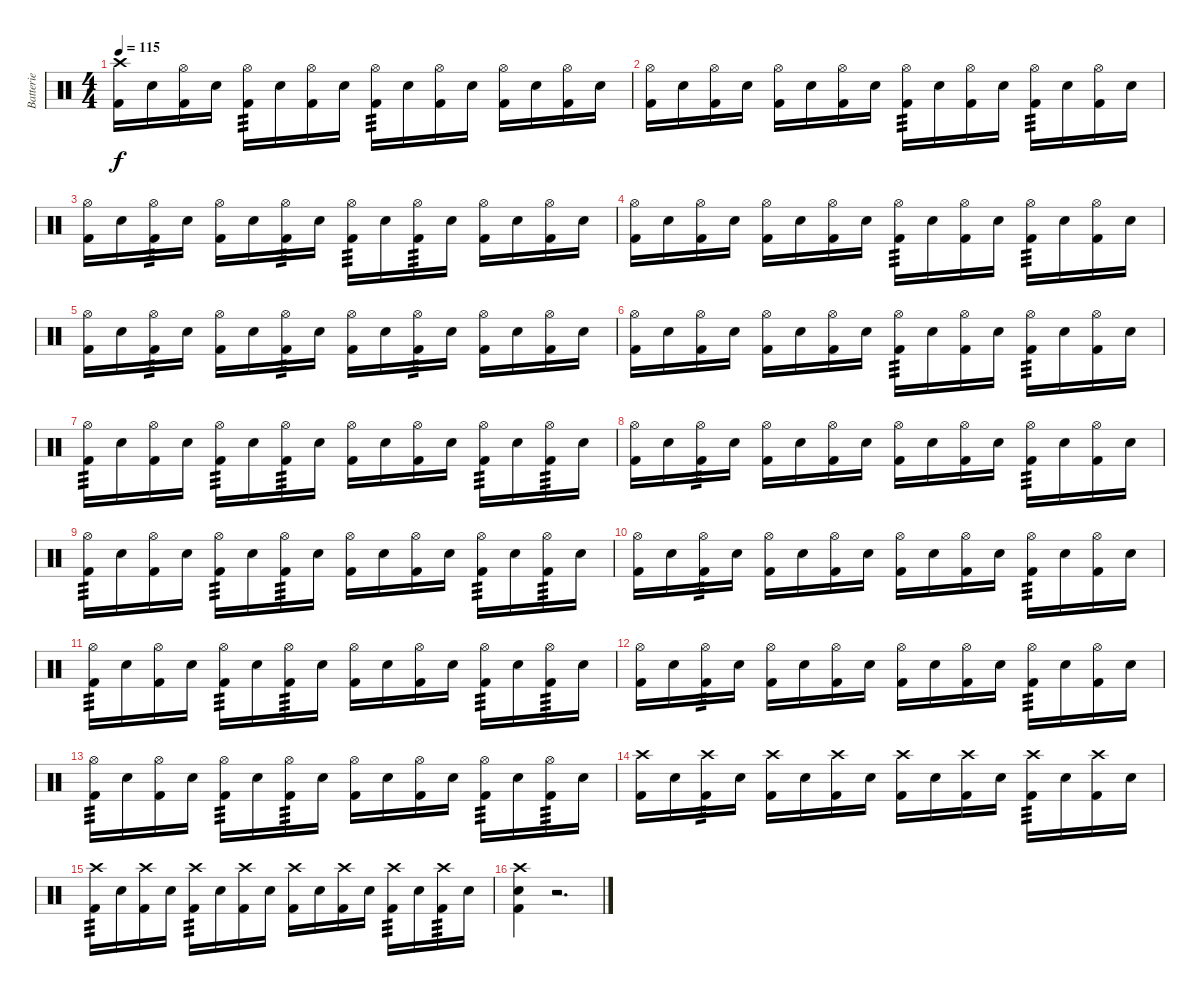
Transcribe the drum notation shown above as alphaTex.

\track ("Batterie" "Batterie") {instrument percussion}
\staff {score}
\articulation defaults
\ts (4 4)
\tempo 115
\clef neutral
\ks c
("Crash high (hit)" "Kick (hit) 2").16{dy f} "Electric Snare (hit)".16 ("Hi-Hat (open)" "Kick (hit) 2").16 "Electric Snare (hit)".16 ("Hi-Hat (open)" "Kick (hit) 2").16{tp 3} "Electric Snare (hit)".16 ("Hi-Hat (open)" "Kick (hit) 2").16 "Electric Snare (hit)".16 ("Hi-Hat (open)" "Kick (hit) 2").16{tp 3} "Electric Snare (hit)".16 ("Hi-Hat (open)" "Kick (hit) 2").16 "Electric Snare (hit)".16 ("Hi-Hat (open)" "Kick (hit) 2").16 "Electric Snare (hit)".16 ("Hi-Hat (open)" "Kick (hit) 2").16 "Electric Snare (hit)".16 |
("Hi-Hat (open)" "Kick (hit) 2").16 "Electric Snare (hit)".16 ("Hi-Hat (open)" "Kick (hit) 2").16 "Electric Snare (hit)".16 ("Hi-Hat (open)" "Kick (hit) 2").16 "Electric Snare (hit)".16 ("Hi-Hat (open)" "Kick (hit) 2").16 "Electric Snare (hit)".16 ("Hi-Hat (open)" "Kick (hit) 2").16{tp 3} "Electric Snare (hit)".16 ("Hi-Hat (open)" "Kick (hit) 2").16 "Electric Snare (hit)".16 ("Hi-Hat (open)" "Kick (hit) 2").16{tp 3} "Electric Snare (hit)".16 ("Hi-Hat (open)" "Kick (hit) 2").16 "Electric Snare (hit)".16 |
("Hi-Hat (open)" "Kick (hit) 2").16 "Electric Snare (hit)".16 ("Hi-Hat (open)" "Kick (hit) 2").16{tp 3} "Electric Snare (hit)".16 ("Hi-Hat (open)" "Kick (hit) 2").16 "Electric Snare (hit)".16 ("Hi-Hat (open)" "Kick (hit) 2").16{tp 3} "Electric Snare (hit)".16 ("Hi-Hat (open)" "Kick (hit) 2").16{tp 3} "Electric Snare (hit)".16 ("Hi-Hat (open)" "Kick (hit) 2").16{tp 3} "Electric Snare (hit)".16 ("Hi-Hat (open)" "Kick (hit) 2").16 "Electric Snare (hit)".16 ("Hi-Hat (open)" "Kick (hit) 2").16 "Electric Snare (hit)".16 |
("Hi-Hat (open)" "Kick (hit) 2").16 "Electric Snare (hit)".16 ("Hi-Hat (open)" "Kick (hit) 2").16 "Electric Snare (hit)".16 ("Hi-Hat (open)" "Kick (hit) 2").16 "Electric Snare (hit)".16 ("Hi-Hat (open)" "Kick (hit) 2").16 "Electric Snare (hit)".16 ("Hi-Hat (open)" "Kick (hit) 2").16{tp 3} "Electric Snare (hit)".16 ("Hi-Hat (open)" "Kick (hit) 2").16 "Electric Snare (hit)".16 ("Hi-Hat (open)" "Kick (hit) 2").16{tp 3} "Electric Snare (hit)".16 ("Hi-Hat (open)" "Kick (hit) 2").16 "Electric Snare (hit)".16 |
("Hi-Hat (open)" "Kick (hit) 2").16 "Electric Snare (hit)".16 ("Hi-Hat (open)" "Kick (hit) 2").16{tp 3} "Electric Snare (hit)".16 ("Hi-Hat (open)" "Kick (hit) 2").16 "Electric Snare (hit)".16 ("Hi-Hat (open)" "Kick (hit) 2").16{tp 3} "Electric Snare (hit)".16 ("Hi-Hat (open)" "Kick (hit) 2").16 "Electric Snare (hit)".16 ("Hi-Hat (open)" "Kick (hit) 2").16{tp 3} "Electric Snare (hit)".16 ("Hi-Hat (open)" "Kick (hit) 2").16 "Electric Snare (hit)".16 ("Hi-Hat (open)" "Kick (hit) 2").16 "Electric Snare (hit)".16 |
("Hi-Hat (open)" "Kick (hit) 2").16 "Electric Snare (hit)".16 ("Hi-Hat (open)" "Kick (hit) 2").16 "Electric Snare (hit)".16 ("Hi-Hat (open)" "Kick (hit) 2").16 "Electric Snare (hit)".16 ("Hi-Hat (open)" "Kick (hit) 2").16 "Electric Snare (hit)".16 ("Hi-Hat (open)" "Kick (hit) 2").16{tp 3} "Electric Snare (hit)".16 ("Hi-Hat (open)" "Kick (hit) 2").16 "Electric Snare (hit)".16 ("Hi-Hat (open)" "Kick (hit) 2").16{tp 3} "Electric Snare (hit)".16 ("Hi-Hat (open)" "Kick (hit) 2").16 "Electric Snare (hit)".16 |
("Hi-Hat (open)" "Kick (hit) 2").16{tp 3} "Electric Snare (hit)".16 ("Hi-Hat (open)" "Kick (hit) 2").16 "Electric Snare (hit)".16 ("Hi-Hat (open)" "Kick (hit) 2").16{tp 3} "Electric Snare (hit)".16 ("Hi-Hat (open)" "Kick (hit) 2").16{tp 3} "Electric Snare (hit)".16 ("Hi-Hat (open)" "Kick (hit) 2").16 "Electric Snare (hit)".16 ("Hi-Hat (open)" "Kick (hit) 2").16 "Electric Snare (hit)".16 ("Hi-Hat (open)" "Kick (hit) 2").16{tp 3} "Electric Snare (hit)".16 ("Hi-Hat (open)" "Kick (hit) 2").16{tp 3} "Electric Snare (hit)".16 |
("Hi-Hat (open)" "Kick (hit) 2").16 "Electric Snare (hit)".16 ("Hi-Hat (open)" "Kick (hit) 2").16{tp 3} "Electric Snare (hit)".16 ("Hi-Hat (open)" "Kick (hit) 2").16 "Electric Snare (hit)".16 ("Hi-Hat (open)" "Kick (hit) 2").16 "Electric Snare (hit)".16 ("Hi-Hat (open)" "Kick (hit) 2").16 "Electric Snare (hit)".16 ("Hi-Hat (open)" "Kick (hit) 2").16 "Electric Snare (hit)".16 ("Hi-Hat (open)" "Kick (hit) 2").16{tp 3} "Electric Snare (hit)".16 ("Hi-Hat (open)" "Kick (hit) 2").16 "Electric Snare (hit)".16 |
("Hi-Hat (open)" "Kick (hit) 2").16{tp 3} "Electric Snare (hit)".16 ("Hi-Hat (open)" "Kick (hit) 2").16 "Electric Snare (hit)".16 ("Hi-Hat (open)" "Kick (hit) 2").16{tp 3} "Electric Snare (hit)".16 ("Hi-Hat (open)" "Kick (hit) 2").16{tp 3} "Electric Snare (hit)".16 ("Hi-Hat (open)" "Kick (hit) 2").16 "Electric Snare (hit)".16 ("Hi-Hat (open)" "Kick (hit) 2").16 "Electric Snare (hit)".16 ("Hi-Hat (open)" "Kick (hit) 2").16{tp 3} "Electric Snare (hit)".16 ("Hi-Hat (open)" "Kick (hit) 2").16{tp 3} "Electric Snare (hit)".16 |
("Hi-Hat (open)" "Kick (hit) 2").16 "Electric Snare (hit)".16 ("Hi-Hat (open)" "Kick (hit) 2").16{tp 3} "Electric Snare (hit)".16 ("Hi-Hat (open)" "Kick (hit) 2").16 "Electric Snare (hit)".16 ("Hi-Hat (open)" "Kick (hit) 2").16 "Electric Snare (hit)".16 ("Hi-Hat (open)" "Kick (hit) 2").16 "Electric Snare (hit)".16 ("Hi-Hat (open)" "Kick (hit) 2").16 "Electric Snare (hit)".16 ("Hi-Hat (open)" "Kick (hit) 2").16{tp 3} "Electric Snare (hit)".16 ("Hi-Hat (open)" "Kick (hit) 2").16 "Electric Snare (hit)".16 |
("Hi-Hat (open)" "Kick (hit) 2").16{tp 3} "Electric Snare (hit)".16 ("Hi-Hat (open)" "Kick (hit) 2").16 "Electric Snare (hit)".16 ("Hi-Hat (open)" "Kick (hit) 2").16{tp 3} "Electric Snare (hit)".16 ("Hi-Hat (open)" "Kick (hit) 2").16{tp 3} "Electric Snare (hit)".16 ("Hi-Hat (open)" "Kick (hit) 2").16 "Electric Snare (hit)".16 ("Hi-Hat (open)" "Kick (hit) 2").16 "Electric Snare (hit)".16 ("Hi-Hat (open)" "Kick (hit) 2").16{tp 3} "Electric Snare (hit)".16 ("Hi-Hat (open)" "Kick (hit) 2").16{tp 3} "Electric Snare (hit)".16 |
("Hi-Hat (open)" "Kick (hit) 2").16 "Electric Snare (hit)".16 ("Hi-Hat (open)" "Kick (hit) 2").16{tp 3} "Electric Snare (hit)".16 ("Hi-Hat (open)" "Kick (hit) 2").16 "Electric Snare (hit)".16 ("Hi-Hat (open)" "Kick (hit) 2").16 "Electric Snare (hit)".16 ("Hi-Hat (open)" "Kick (hit) 2").16 "Electric Snare (hit)".16 ("Hi-Hat (open)" "Kick (hit) 2").16 "Electric Snare (hit)".16 ("Hi-Hat (open)" "Kick (hit) 2").16{tp 3} "Electric Snare (hit)".16 ("Hi-Hat (open)" "Kick (hit) 2").16 "Electric Snare (hit)".16 |
("Hi-Hat (open)" "Kick (hit) 2").16{tp 3} "Electric Snare (hit)".16 ("Hi-Hat (open)" "Kick (hit) 2").16 "Electric Snare (hit)".16 ("Hi-Hat (open)" "Kick (hit) 2").16{tp 3} "Electric Snare (hit)".16 ("Hi-Hat (open)" "Kick (hit) 2").16{tp 3} "Electric Snare (hit)".16 ("Hi-Hat (open)" "Kick (hit) 2").16 "Electric Snare (hit)".16 ("Hi-Hat (open)" "Kick (hit) 2").16 "Electric Snare (hit)".16 ("Hi-Hat (open)" "Kick (hit) 2").16{tp 3} "Electric Snare (hit)".16 ("Hi-Hat (open)" "Kick (hit) 2").16{tp 3} "Electric Snare (hit)".16 |
("Crash high (hit)" "Kick (hit) 2").16 "Electric Snare (hit)".16 ("Crash high (hit)" "Kick (hit) 2").16{tp 3} "Electric Snare (hit)".16 ("Crash high (hit)" "Kick (hit) 2").16 "Electric Snare (hit)".16 ("Crash high (hit)" "Kick (hit) 2").16 "Electric Snare (hit)".16 ("Crash high (hit)" "Kick (hit) 2").16 "Electric Snare (hit)".16 ("Crash high (hit)" "Kick (hit) 2").16 "Electric Snare (hit)".16 ("Crash high (hit)" "Kick (hit) 2").16{tp 3} "Electric Snare (hit)".16 ("Crash high (hit)" "Kick (hit) 2").16 "Electric Snare (hit)".16 |
("Crash high (hit)" "Kick (hit) 2").16{tp 3} "Electric Snare (hit)".16 ("Crash high (hit)" "Kick (hit) 2").16 "Electric Snare (hit)".16 ("Crash high (hit)" "Kick (hit) 2").16{tp 3} "Electric Snare (hit)".16 ("Crash high (hit)" "Kick (hit) 2").16 "Electric Snare (hit)".16 ("Crash high (hit)" "Kick (hit) 2").16 "Electric Snare (hit)".16 ("Crash high (hit)" "Kick (hit) 2").16 "Electric Snare (hit)".16 ("Crash high (hit)" "Kick (hit) 2").16{tp 3} "Electric Snare (hit)".16 ("Crash high (hit)" "Kick (hit) 2").16{tp 3} "Electric Snare (hit)".16 |
("Crash high (hit)" "Electric Snare (hit)" "Kick (hit) 2").4 r.2{d}
